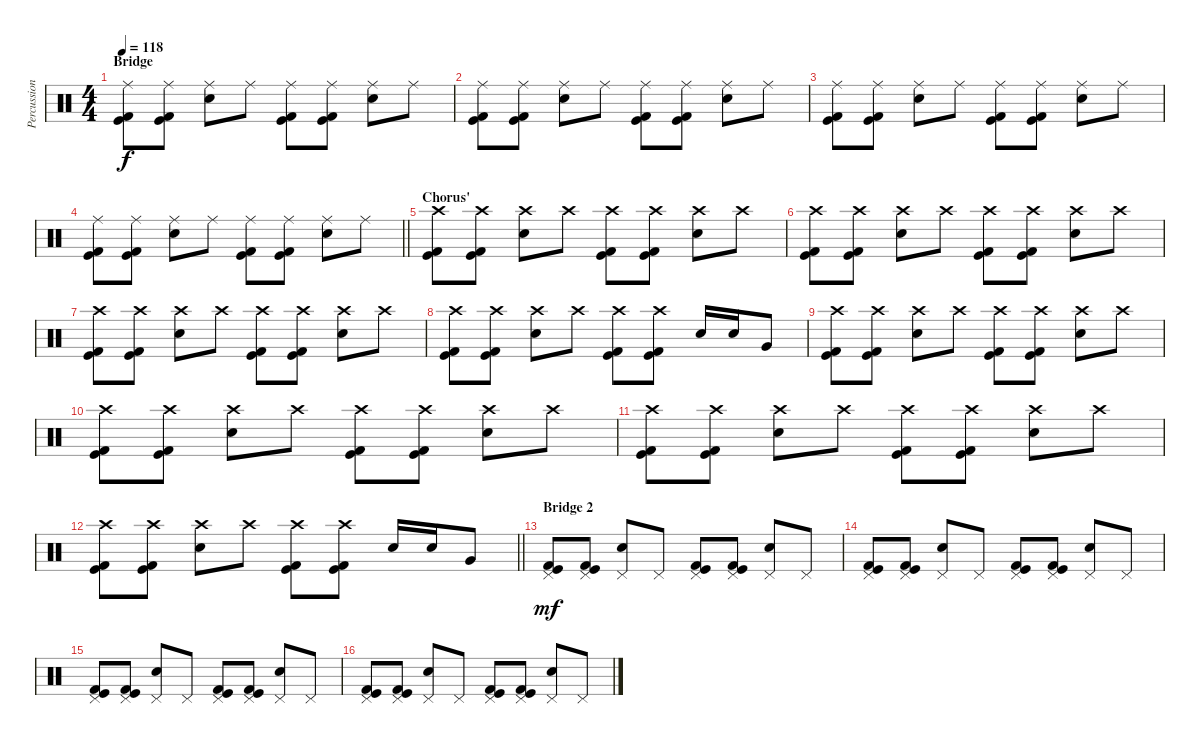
\track ("Percussion" "Percussion") {instrument percussion}
\staff {score}
\articulation defaults
\ts (4 4)
\section ("" "Bridge")
\tempo 118
\clef neutral
\ks c
("Ride (middle)" "Kick (hit) 2" "Kick (hit)").8{dy f} ("Ride (middle)" "Kick (hit) 2" "Kick (hit)").8 ("Ride (middle)" "Electric Snare (hit)").8 "Ride (middle)".8 ("Ride (middle)" "Kick (hit) 2" "Kick (hit)").8 ("Ride (middle)" "Kick (hit) 2" "Kick (hit)").8 ("Ride (middle)" "Electric Snare (hit)").8 "Ride (middle)".8 |
("Ride (middle)" "Kick (hit) 2" "Kick (hit)").8 ("Ride (middle)" "Kick (hit) 2" "Kick (hit)").8 ("Ride (middle)" "Electric Snare (hit)").8 "Ride (middle)".8 ("Ride (middle)" "Kick (hit) 2" "Kick (hit)").8 ("Ride (middle)" "Kick (hit) 2" "Kick (hit)").8 ("Ride (middle)" "Electric Snare (hit)").8 "Ride (middle)".8 |
("Ride (middle)" "Kick (hit) 2" "Kick (hit)").8 ("Ride (middle)" "Kick (hit) 2" "Kick (hit)").8 ("Ride (middle)" "Electric Snare (hit)").8 "Ride (middle)".8 ("Ride (middle)" "Kick (hit) 2" "Kick (hit)").8 ("Ride (middle)" "Kick (hit) 2" "Kick (hit)").8 ("Ride (middle)" "Electric Snare (hit)").8 "Ride (middle)".8 |
\barLineRight lightlight
("Ride (middle)" "Kick (hit) 2" "Kick (hit)").8 ("Ride (middle)" "Kick (hit) 2" "Kick (hit)").8 ("Ride (middle)" "Electric Snare (hit)").8 "Ride (middle)".8 ("Ride (middle)" "Kick (hit) 2" "Kick (hit)").8 ("Ride (middle)" "Kick (hit) 2" "Kick (hit)").8 ("Ride (middle)" "Electric Snare (hit)").8 "Ride (middle)".8 |
\section ("" "Chorus'")
("Crash high (hit)" "Kick (hit) 2" "Kick (hit)").8 ("Crash high (hit)" "Kick (hit) 2" "Kick (hit)").8 ("Crash high (hit)" "Electric Snare (hit)").8 "Crash high (hit)".8 ("Crash high (hit)" "Kick (hit) 2" "Kick (hit)").8 ("Crash high (hit)" "Kick (hit) 2" "Kick (hit)").8 ("Crash high (hit)" "Electric Snare (hit)").8 "Crash high (hit)".8 |
("Crash high (hit)" "Kick (hit) 2" "Kick (hit)").8 ("Crash high (hit)" "Kick (hit) 2" "Kick (hit)").8 ("Crash high (hit)" "Electric Snare (hit)").8 "Crash high (hit)".8 ("Crash high (hit)" "Kick (hit) 2" "Kick (hit)").8 ("Crash high (hit)" "Kick (hit) 2" "Kick (hit)").8 ("Crash high (hit)" "Electric Snare (hit)").8 "Crash high (hit)".8 |
("Crash high (hit)" "Kick (hit) 2" "Kick (hit)").8 ("Crash high (hit)" "Kick (hit) 2" "Kick (hit)").8 ("Crash high (hit)" "Electric Snare (hit)").8 "Crash high (hit)".8 ("Crash high (hit)" "Kick (hit) 2" "Kick (hit)").8 ("Crash high (hit)" "Kick (hit) 2" "Kick (hit)").8 ("Crash high (hit)" "Electric Snare (hit)").8 "Crash high (hit)".8 |
("Crash high (hit)" "Kick (hit) 2" "Kick (hit)").8 ("Crash high (hit)" "Kick (hit) 2" "Kick (hit)").8 ("Crash high (hit)" "Electric Snare (hit)").8 "Crash high (hit)".8 ("Crash high (hit)" "Kick (hit) 2" "Kick (hit)").8 ("Crash high (hit)" "Kick (hit) 2" "Kick (hit)").8 "Electric Snare (hit)".16 "Electric Snare (hit)".16 "Very Low Tom (hit)".8 |
("Crash high (hit)" "Kick (hit) 2" "Kick (hit)").8 ("Crash high (hit)" "Kick (hit) 2" "Kick (hit)").8 ("Crash high (hit)" "Electric Snare (hit)").8 "Crash high (hit)".8 ("Crash high (hit)" "Kick (hit) 2" "Kick (hit)").8 ("Crash high (hit)" "Kick (hit) 2" "Kick (hit)").8 ("Crash high (hit)" "Electric Snare (hit)").8 "Crash high (hit)".8 |
("Crash high (hit)" "Kick (hit) 2" "Kick (hit)").8 ("Crash high (hit)" "Kick (hit) 2" "Kick (hit)").8 ("Crash high (hit)" "Electric Snare (hit)").8 "Crash high (hit)".8 ("Crash high (hit)" "Kick (hit) 2" "Kick (hit)").8 ("Crash high (hit)" "Kick (hit) 2" "Kick (hit)").8 ("Crash high (hit)" "Electric Snare (hit)").8 "Crash high (hit)".8 |
("Crash high (hit)" "Kick (hit) 2" "Kick (hit)").8 ("Crash high (hit)" "Kick (hit) 2" "Kick (hit)").8 ("Crash high (hit)" "Electric Snare (hit)").8 "Crash high (hit)".8 ("Crash high (hit)" "Kick (hit) 2" "Kick (hit)").8 ("Crash high (hit)" "Kick (hit) 2" "Kick (hit)").8 ("Crash high (hit)" "Electric Snare (hit)").8 "Crash high (hit)".8 |
\barLineRight lightlight
("Crash high (hit)" "Kick (hit) 2" "Kick (hit)").8 ("Crash high (hit)" "Kick (hit) 2" "Kick (hit)").8 ("Crash high (hit)" "Electric Snare (hit)").8 "Crash high (hit)".8 ("Crash high (hit)" "Kick (hit) 2" "Kick (hit)").8 ("Crash high (hit)" "Kick (hit) 2" "Kick (hit)").8 "Electric Snare (hit)".16 "Electric Snare (hit)".16 "Very Low Tom (hit)".8 |
\section ("" "Bridge 2")
("Pedal Hi-Hat (hit)" "Kick (hit) 2" "Kick (hit)").8{dy mf} ("Pedal Hi-Hat (hit)" "Kick (hit) 2" "Kick (hit)").8 ("Pedal Hi-Hat (hit)" "Electric Snare (hit)").8 "Pedal Hi-Hat (hit)".8 ("Pedal Hi-Hat (hit)" "Kick (hit) 2" "Kick (hit)").8 ("Pedal Hi-Hat (hit)" "Kick (hit) 2" "Kick (hit)").8 ("Pedal Hi-Hat (hit)" "Electric Snare (hit)").8 "Pedal Hi-Hat (hit)".8 |
("Pedal Hi-Hat (hit)" "Kick (hit) 2" "Kick (hit)").8 ("Pedal Hi-Hat (hit)" "Kick (hit) 2" "Kick (hit)").8 ("Pedal Hi-Hat (hit)" "Electric Snare (hit)").8 "Pedal Hi-Hat (hit)".8 ("Pedal Hi-Hat (hit)" "Kick (hit) 2" "Kick (hit)").8 ("Pedal Hi-Hat (hit)" "Kick (hit) 2" "Kick (hit)").8 ("Pedal Hi-Hat (hit)" "Electric Snare (hit)").8 "Pedal Hi-Hat (hit)".8 |
("Pedal Hi-Hat (hit)" "Kick (hit) 2" "Kick (hit)").8 ("Pedal Hi-Hat (hit)" "Kick (hit) 2" "Kick (hit)").8 ("Pedal Hi-Hat (hit)" "Electric Snare (hit)").8 "Pedal Hi-Hat (hit)".8 ("Pedal Hi-Hat (hit)" "Kick (hit) 2" "Kick (hit)").8 ("Pedal Hi-Hat (hit)" "Kick (hit) 2" "Kick (hit)").8 ("Pedal Hi-Hat (hit)" "Electric Snare (hit)").8 "Pedal Hi-Hat (hit)".8 |
("Pedal Hi-Hat (hit)" "Kick (hit) 2" "Kick (hit)").8 ("Pedal Hi-Hat (hit)" "Kick (hit) 2" "Kick (hit)").8 ("Pedal Hi-Hat (hit)" "Electric Snare (hit)").8 "Pedal Hi-Hat (hit)".8 ("Pedal Hi-Hat (hit)" "Kick (hit) 2" "Kick (hit)").8 ("Pedal Hi-Hat (hit)" "Kick (hit) 2" "Kick (hit)").8 ("Pedal Hi-Hat (hit)" "Electric Snare (hit)").8 "Pedal Hi-Hat (hit)".8
